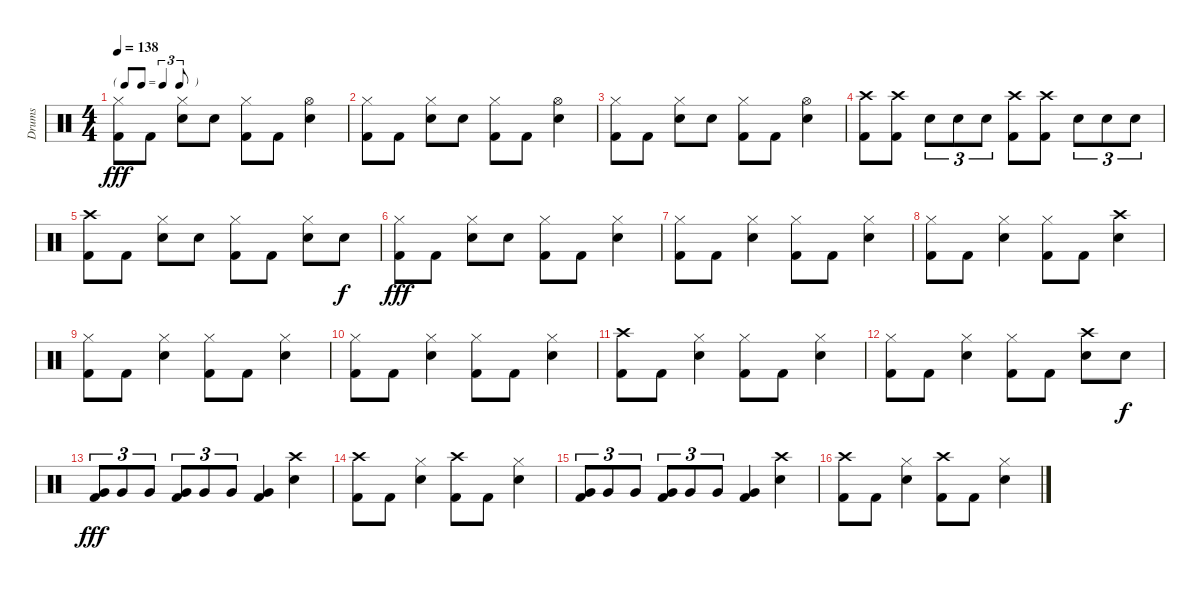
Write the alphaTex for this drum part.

\track ("Drums" "Drums") {instrument percussion}
\staff {score}
\articulation defaults
\ts (4 4)
\tf triplet8th
\tempo 138
\clef neutral
\ks c
("Hi-Hat (closed)" "Kick (hit) 2").8{dy fff} "Kick (hit) 2".8 ("Hi-Hat (closed)" "Snare (hit) 2").8 "Snare (hit) 2".8 ("Hi-Hat (closed)" "Kick (hit) 2").8 "Kick (hit) 2".8 ("Hi-Hat (open)" "Snare (hit) 2").4 |
("Hi-Hat (closed)" "Kick (hit) 2").8 "Kick (hit) 2".8 ("Hi-Hat (closed)" "Snare (hit) 2").8 "Snare (hit) 2".8 ("Hi-Hat (closed)" "Kick (hit) 2").8 "Kick (hit) 2".8 ("Hi-Hat (open)" "Snare (hit) 2").4 |
("Hi-Hat (closed)" "Kick (hit) 2").8 "Kick (hit) 2".8 ("Hi-Hat (closed)" "Snare (hit) 2").8 "Snare (hit) 2".8 ("Hi-Hat (closed)" "Kick (hit) 2").8 "Kick (hit) 2".8 ("Hi-Hat (open)" "Snare (hit) 2").4 |
("Crash high (hit)" "Kick (hit) 2").8 ("Crash high (hit)" "Kick (hit) 2").8 "Snare (hit) 2".8{tu (3 2)} "Snare (hit) 2".8{tu (3 2)} "Snare (hit) 2".8{tu (3 2)} ("Crash high (hit)" "Kick (hit) 2").8 ("Crash high (hit)" "Kick (hit) 2").8 "Snare (hit) 2".8{tu (3 2)} "Snare (hit) 2".8{tu (3 2)} "Snare (hit) 2".8{tu (3 2)} |
("Crash high (hit)" "Kick (hit) 2").8 "Kick (hit) 2".8 ("Hi-Hat (closed)" "Snare (hit) 2").8 "Snare (hit) 2".8 ("Hi-Hat (closed)" "Kick (hit) 2").8 "Kick (hit) 2".8 ("Hi-Hat (closed)" "Snare (hit) 2").8 "Snare (hit) 2".8{dy f} |
("Hi-Hat (closed)" "Kick (hit) 2").8{dy fff} "Kick (hit) 2".8 ("Hi-Hat (closed)" "Snare (hit) 2").8 "Snare (hit) 2".8 ("Hi-Hat (closed)" "Kick (hit) 2").8 "Kick (hit) 2".8 ("Hi-Hat (closed)" "Snare (hit) 2").4 |
("Hi-Hat (closed)" "Kick (hit) 2").8 "Kick (hit) 2".8 ("Hi-Hat (closed)" "Snare (hit) 2").4 ("Hi-Hat (closed)" "Kick (hit) 2").8 "Kick (hit) 2".8 ("Hi-Hat (closed)" "Snare (hit) 2").4 |
("Hi-Hat (closed)" "Kick (hit) 2").8 "Kick (hit) 2".8 ("Hi-Hat (closed)" "Snare (hit) 2").4 ("Hi-Hat (closed)" "Kick (hit) 2").8 "Kick (hit) 2".8 ("Crash high (hit)" "Snare (hit) 2").4 |
("Hi-Hat (closed)" "Kick (hit) 2").8 "Kick (hit) 2".8 ("Hi-Hat (closed)" "Snare (hit) 2").4 ("Hi-Hat (closed)" "Kick (hit) 2").8 "Kick (hit) 2".8 ("Hi-Hat (closed)" "Snare (hit) 2").4 |
("Hi-Hat (closed)" "Kick (hit) 2").8 "Kick (hit) 2".8 ("Hi-Hat (closed)" "Snare (hit) 2").4 ("Hi-Hat (closed)" "Kick (hit) 2").8 "Kick (hit) 2".8 ("Hi-Hat (closed)" "Snare (hit) 2").4 |
("Crash high (hit)" "Kick (hit) 2").8 "Kick (hit) 2".8 ("Hi-Hat (closed)" "Snare (hit) 2").4 ("Hi-Hat (closed)" "Kick (hit) 2").8 "Kick (hit) 2".8 ("Hi-Hat (closed)" "Snare (hit) 2").4 |
("Hi-Hat (closed)" "Kick (hit) 2").8 "Kick (hit) 2".8 ("Hi-Hat (closed)" "Snare (hit) 2").4 ("Hi-Hat (closed)" "Kick (hit) 2").8 "Kick (hit) 2".8 ("Crash high (hit)" "Snare (hit) 2").8 "Snare (hit) 2".8{dy f} |
("Very Low Tom (hit)" "Kick (hit) 2").8{tu (3 2) dy fff} "Very Low Tom (hit)".8{tu (3 2)} "Very Low Tom (hit)".8{tu (3 2)} ("Very Low Tom (hit)" "Kick (hit) 2").8{tu (3 2)} "Very Low Tom (hit)".8{tu (3 2)} "Very Low Tom (hit)".8{tu (3 2)} ("Very Low Tom (hit)" "Kick (hit) 2").4 ("Crash high (hit)" "Snare (hit) 2").4 |
("Crash high (hit)" "Kick (hit) 2").8 "Kick (hit) 2".8 ("Hi-Hat (closed)" "Snare (hit) 2").4 ("Crash high (hit)" "Kick (hit) 2").8 "Kick (hit) 2".8 ("Hi-Hat (closed)" "Snare (hit) 2").4 |
("Very Low Tom (hit)" "Kick (hit) 2").8{tu (3 2)} "Very Low Tom (hit)".8{tu (3 2)} "Very Low Tom (hit)".8{tu (3 2)} ("Very Low Tom (hit)" "Kick (hit) 2").8{tu (3 2)} "Very Low Tom (hit)".8{tu (3 2)} "Very Low Tom (hit)".8{tu (3 2)} ("Very Low Tom (hit)" "Kick (hit) 2").4 ("Crash high (hit)" "Snare (hit) 2").4 |
("Crash high (hit)" "Kick (hit) 2").8 "Kick (hit) 2".8 ("Hi-Hat (closed)" "Snare (hit) 2").4 ("Crash high (hit)" "Kick (hit) 2").8 "Kick (hit) 2".8 ("Hi-Hat (closed)" "Snare (hit) 2").4
